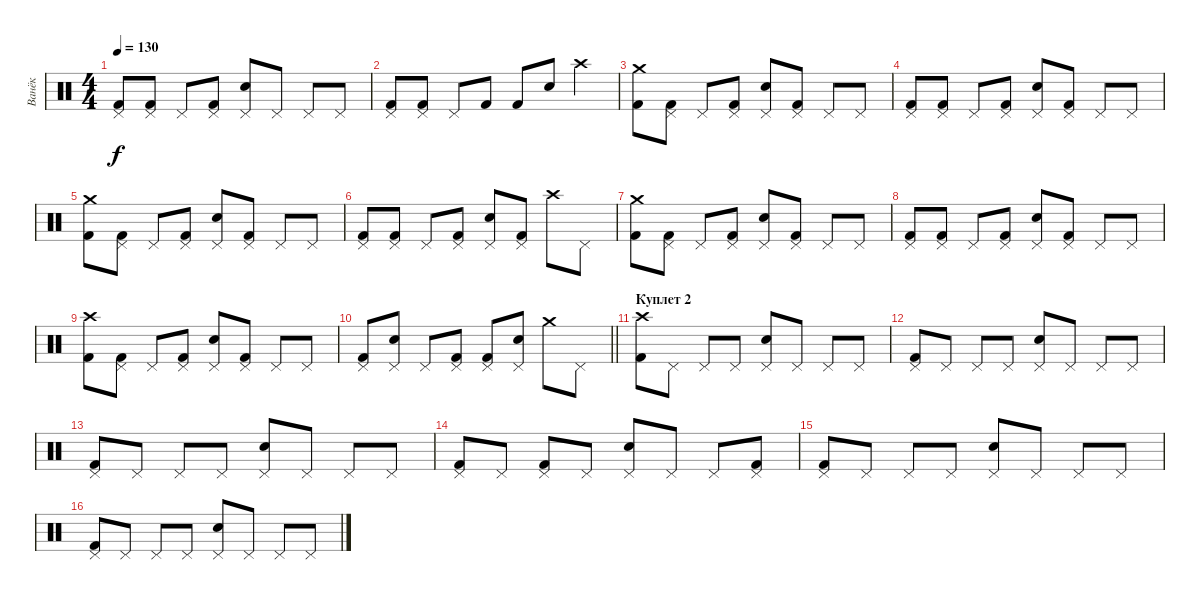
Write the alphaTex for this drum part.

\track ("Ванёк" "Ванёк") {instrument percussion}
\staff {score}
\articulation defaults
\ts (4 4)
\tempo 130
\clef neutral
\ks c
("Pedal Hi-Hat (hit)" "Kick (hit) 2").8{dy f} ("Pedal Hi-Hat (hit)" "Kick (hit) 2").8 "Pedal Hi-Hat (hit)".8 ("Pedal Hi-Hat (hit)" "Kick (hit) 2").8 ("Pedal Hi-Hat (hit)" "Snare (hit) 2").8 "Pedal Hi-Hat (hit)".8 "Pedal Hi-Hat (hit)".8 "Pedal Hi-Hat (hit)".8 |
("Pedal Hi-Hat (hit)" "Kick (hit) 2").8 ("Pedal Hi-Hat (hit)" "Kick (hit) 2").8 "Pedal Hi-Hat (hit)".8 "Kick (hit) 2".8 "Kick (hit) 2".8 "Snare (hit) 2".8 "Crash high (hit)".4 |
("Crash medium (hit)" "Kick (hit) 2").8 ("Pedal Hi-Hat (hit)" "Kick (hit) 2").8 "Pedal Hi-Hat (hit)".8 ("Pedal Hi-Hat (hit)" "Kick (hit) 2").8 ("Pedal Hi-Hat (hit)" "Snare (hit) 2").8 ("Pedal Hi-Hat (hit)" "Kick (hit) 2").8 "Pedal Hi-Hat (hit)".8 "Pedal Hi-Hat (hit)".8 |
("Pedal Hi-Hat (hit)" "Kick (hit) 2").8 ("Pedal Hi-Hat (hit)" "Kick (hit) 2").8 "Pedal Hi-Hat (hit)".8 ("Pedal Hi-Hat (hit)" "Kick (hit) 2").8 ("Pedal Hi-Hat (hit)" "Snare (hit) 2").8 ("Pedal Hi-Hat (hit)" "Kick (hit) 2").8 "Pedal Hi-Hat (hit)".8 "Pedal Hi-Hat (hit)".8 |
("Crash medium (hit)" "Kick (hit) 2").8 ("Pedal Hi-Hat (hit)" "Kick (hit) 2").8 "Pedal Hi-Hat (hit)".8 ("Pedal Hi-Hat (hit)" "Kick (hit) 2").8 ("Pedal Hi-Hat (hit)" "Snare (hit) 2").8 ("Pedal Hi-Hat (hit)" "Kick (hit) 2").8 "Pedal Hi-Hat (hit)".8 "Pedal Hi-Hat (hit)".8 |
("Pedal Hi-Hat (hit)" "Kick (hit) 2").8 ("Pedal Hi-Hat (hit)" "Kick (hit) 2").8 "Pedal Hi-Hat (hit)".8 ("Pedal Hi-Hat (hit)" "Kick (hit) 2").8 ("Pedal Hi-Hat (hit)" "Snare (hit) 2").8 ("Pedal Hi-Hat (hit)" "Kick (hit) 2").8 "Crash high (hit)".8 "Pedal Hi-Hat (hit)".8 |
("Crash medium (hit)" "Kick (hit) 2").8 ("Pedal Hi-Hat (hit)" "Kick (hit) 2").8 "Pedal Hi-Hat (hit)".8 ("Pedal Hi-Hat (hit)" "Kick (hit) 2").8 ("Pedal Hi-Hat (hit)" "Snare (hit) 2").8 ("Pedal Hi-Hat (hit)" "Kick (hit) 2").8 "Pedal Hi-Hat (hit)".8 "Pedal Hi-Hat (hit)".8 |
("Pedal Hi-Hat (hit)" "Kick (hit) 2").8 ("Pedal Hi-Hat (hit)" "Kick (hit) 2").8 "Pedal Hi-Hat (hit)".8 ("Pedal Hi-Hat (hit)" "Kick (hit) 2").8 ("Pedal Hi-Hat (hit)" "Snare (hit) 2").8 ("Pedal Hi-Hat (hit)" "Kick (hit) 2").8 "Pedal Hi-Hat (hit)".8 "Pedal Hi-Hat (hit)".8 |
("Crash high (hit)" "Kick (hit) 2").8 ("Pedal Hi-Hat (hit)" "Kick (hit) 2").8 "Pedal Hi-Hat (hit)".8 ("Pedal Hi-Hat (hit)" "Kick (hit) 2").8 ("Pedal Hi-Hat (hit)" "Snare (hit) 2").8 ("Pedal Hi-Hat (hit)" "Kick (hit) 2").8 "Pedal Hi-Hat (hit)".8 "Pedal Hi-Hat (hit)".8 |
\barLineRight lightlight
("Pedal Hi-Hat (hit)" "Kick (hit) 2").8 ("Pedal Hi-Hat (hit)" "Snare (hit) 2").8 "Pedal Hi-Hat (hit)".8 ("Pedal Hi-Hat (hit)" "Kick (hit) 2").8 ("Pedal Hi-Hat (hit)" "Kick (hit) 2").8 ("Pedal Hi-Hat (hit)" "Snare (hit) 2").8 "Crash medium (hit)".8 "Pedal Hi-Hat (hit)".8 |
\section ("" "Куплет 2")
("Crash high (hit)" "Kick (hit) 2").8 "Pedal Hi-Hat (hit)".8 "Pedal Hi-Hat (hit)".8 "Pedal Hi-Hat (hit)".8 ("Pedal Hi-Hat (hit)" "Snare (hit) 2").8 "Pedal Hi-Hat (hit)".8 "Pedal Hi-Hat (hit)".8 "Pedal Hi-Hat (hit)".8 |
("Pedal Hi-Hat (hit)" "Kick (hit) 2").8 "Pedal Hi-Hat (hit)".8 "Pedal Hi-Hat (hit)".8 "Pedal Hi-Hat (hit)".8 ("Pedal Hi-Hat (hit)" "Snare (hit) 2").8 "Pedal Hi-Hat (hit)".8 "Pedal Hi-Hat (hit)".8 "Pedal Hi-Hat (hit)".8 |
("Pedal Hi-Hat (hit)" "Kick (hit) 2").8 "Pedal Hi-Hat (hit)".8 "Pedal Hi-Hat (hit)".8 "Pedal Hi-Hat (hit)".8 ("Pedal Hi-Hat (hit)" "Snare (hit) 2").8 "Pedal Hi-Hat (hit)".8 "Pedal Hi-Hat (hit)".8 "Pedal Hi-Hat (hit)".8 |
("Pedal Hi-Hat (hit)" "Kick (hit) 2").8 "Pedal Hi-Hat (hit)".8 ("Pedal Hi-Hat (hit)" "Kick (hit) 2").8 "Pedal Hi-Hat (hit)".8 ("Pedal Hi-Hat (hit)" "Snare (hit) 2").8 "Pedal Hi-Hat (hit)".8 "Pedal Hi-Hat (hit)".8 ("Pedal Hi-Hat (hit)" "Kick (hit) 2").8 |
("Pedal Hi-Hat (hit)" "Kick (hit) 2").8 "Pedal Hi-Hat (hit)".8 "Pedal Hi-Hat (hit)".8 "Pedal Hi-Hat (hit)".8 ("Pedal Hi-Hat (hit)" "Snare (hit) 2").8 "Pedal Hi-Hat (hit)".8 "Pedal Hi-Hat (hit)".8 "Pedal Hi-Hat (hit)".8 |
("Pedal Hi-Hat (hit)" "Kick (hit) 2").8 "Pedal Hi-Hat (hit)".8 "Pedal Hi-Hat (hit)".8 "Pedal Hi-Hat (hit)".8 ("Pedal Hi-Hat (hit)" "Snare (hit) 2").8 "Pedal Hi-Hat (hit)".8 "Pedal Hi-Hat (hit)".8 "Pedal Hi-Hat (hit)".8
